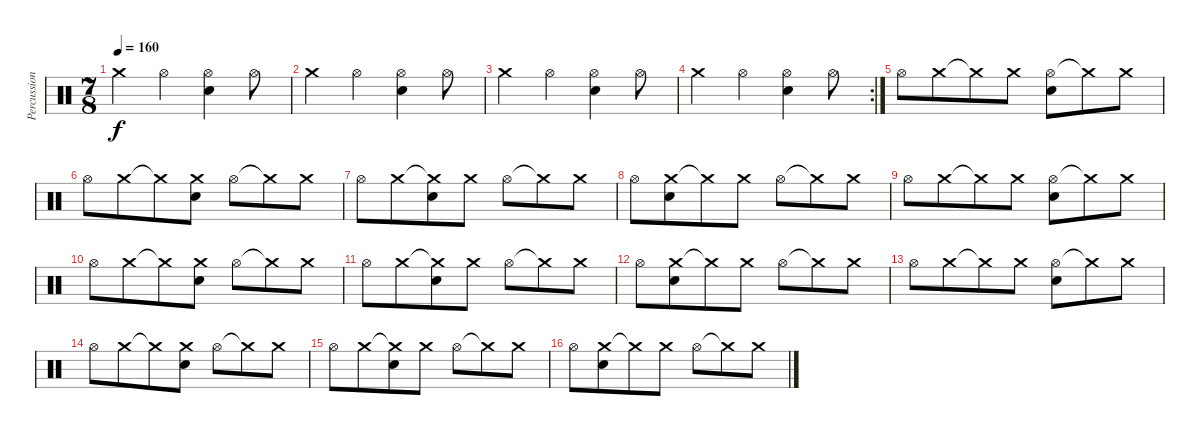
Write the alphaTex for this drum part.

\track ("Percussion" "Percussion") {instrument percussion}
\staff {score}
\articulation defaults
\ts (7 8)
\tempo 160
\clef neutral
\ks c "Crash medium (hit)".4{dy f} "Hi-Hat (open)".4
("Hi-Hat (open)" "Snare (hit) 2").4 "Hi-Hat (open)".8 |
"Crash medium (hit)".4 "Hi-Hat (open)".4 ("Hi-Hat (open)" "Snare (hit) 2").4 "Hi-Hat (open)".8 |
"Crash medium (hit)".4 "Hi-Hat (open)".4 ("Hi-Hat (open)" "Snare (hit) 2").4 "Hi-Hat (open)".8 |
\rc 2 "Crash medium (hit)".4 "Hi-Hat (open)".4
("Hi-Hat (open)" "Snare (hit) 2").4 "Hi-Hat (open)".8 |
"Hi-Hat (open)".8 "Crash medium (hit)".8 "Crash medium (hit)"{t}.8 "Crash medium (hit)".8 ("Hi-Hat (open)" "Snare (hit) 2").8 "Crash medium (hit)"{t}.8 "Crash medium (hit)".8 |
"Hi-Hat (open)".8 "Crash medium (hit)".8 "Crash medium (hit)"{t}.8 ("Crash medium (hit)" "Snare (hit) 2").8 "Hi-Hat (open)".8 "Crash medium (hit)"{t}.8 "Crash medium (hit)".8 |
"Hi-Hat (open)".8 "Crash medium (hit)".8 ("Crash medium (hit)"{t} "Snare (hit) 2").8 "Crash medium (hit)".8 "Hi-Hat (open)".8 "Crash medium (hit)"{t}.8 "Crash medium (hit)".8 |
"Hi-Hat (open)".8 ("Crash medium (hit)" "Snare (hit) 2").8 "Crash medium (hit)"{t}.8 "Crash medium (hit)".8 "Hi-Hat (open)".8 "Crash medium (hit)"{t}.8 "Crash medium (hit)".8 |
"Hi-Hat (open)".8 "Crash medium (hit)".8 "Crash medium (hit)"{t}.8 "Crash medium (hit)".8 ("Hi-Hat (open)" "Snare (hit) 2").8 "Crash medium (hit)"{t}.8 "Crash medium (hit)".8 |
"Hi-Hat (open)".8 "Crash medium (hit)".8 "Crash medium (hit)"{t}.8 ("Crash medium (hit)" "Snare (hit) 2").8 "Hi-Hat (open)".8 "Crash medium (hit)"{t}.8 "Crash medium (hit)".8 |
"Hi-Hat (open)".8 "Crash medium (hit)".8 ("Crash medium (hit)"{t} "Snare (hit) 2").8 "Crash medium (hit)".8 "Hi-Hat (open)".8 "Crash medium (hit)"{t}.8 "Crash medium (hit)".8 |
"Hi-Hat (open)".8 ("Crash medium (hit)" "Snare (hit) 2").8 "Crash medium (hit)"{t}.8 "Crash medium (hit)".8 "Hi-Hat (open)".8 "Crash medium (hit)"{t}.8 "Crash medium (hit)".8 |
"Hi-Hat (open)".8 "Crash medium (hit)".8 "Crash medium (hit)"{t}.8 "Crash medium (hit)".8 ("Hi-Hat (open)" "Snare (hit) 2").8 "Crash medium (hit)"{t}.8 "Crash medium (hit)".8 |
"Hi-Hat (open)".8 "Crash medium (hit)".8 "Crash medium (hit)"{t}.8 ("Crash medium (hit)" "Snare (hit) 2").8 "Hi-Hat (open)".8 "Crash medium (hit)"{t}.8 "Crash medium (hit)".8 |
"Hi-Hat (open)".8 "Crash medium (hit)".8 ("Crash medium (hit)"{t} "Snare (hit) 2").8 "Crash medium (hit)".8 "Hi-Hat (open)".8 "Crash medium (hit)"{t}.8 "Crash medium (hit)".8 |
"Hi-Hat (open)".8 ("Crash medium (hit)" "Snare (hit) 2").8 "Crash medium (hit)"{t}.8 "Crash medium (hit)".8 "Hi-Hat (open)".8 "Crash medium (hit)"{t}.8 "Crash medium (hit)".8
